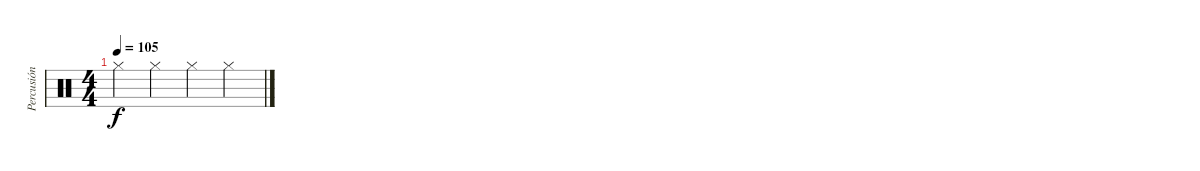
\track ("Percusión" "Percusión") {instrument percussion}
\staff {score}
\articulation defaults
\ts (4 4)
\tempo 105
\clef neutral
\ks c "Hi-Hat (closed)".4{dy f} "Hi-Hat (closed)".4 "Hi-Hat (closed)".4 "Hi-Hat (closed)".4
